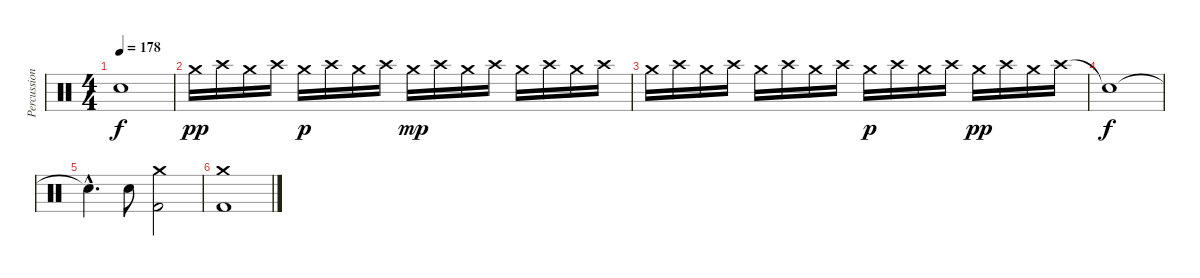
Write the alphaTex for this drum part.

\track ("Percussions" "Percussion") {instrument percussion}
\staff {score}
\articulation defaults
\ts (4 4)
\tempo 178
\clef neutral
\ks c "Snare (hit)"{t}.1{dy f}
|
"Crash medium (hit)".16{dy pp} "Crash high (hit)".16 "Crash medium (hit)".16 "Crash high (hit)".16 "Crash medium (hit)".16{dy p} "Crash high (hit)".16 "Crash medium (hit)".16 "Crash high (hit)".16 "Crash medium (hit)".16{dy mp} "Crash high (hit)".16 "Crash medium (hit)".16 "Crash high (hit)".16 "Crash medium (hit)".16 "Crash high (hit)".16 "Crash medium (hit)".16 "Crash high (hit)".16 |
"Crash medium (hit)".16 "Crash high (hit)".16 "Crash medium (hit)".16 "Crash high (hit)".16 "Crash medium (hit)".16 "Crash high (hit)".16 "Crash medium (hit)".16 "Crash high (hit)".16 "Crash medium (hit)".16{dy p} "Crash high (hit)".16 "Crash medium (hit)".16 "Crash high (hit)".16 "Crash medium (hit)".16{dy pp} "Crash high (hit)".16 "Crash medium (hit)".16 "Crash high (hit)".16 |
"Snare (hit)"{t}.1{dy f} |
"Snare (hit)"{hac t}.4{d} "Electric Snare (hit)".8 ("Kick (hit) 2" "Crash medium (hit)").2 |
("Kick (hit) 2" "Crash medium (hit)").1
